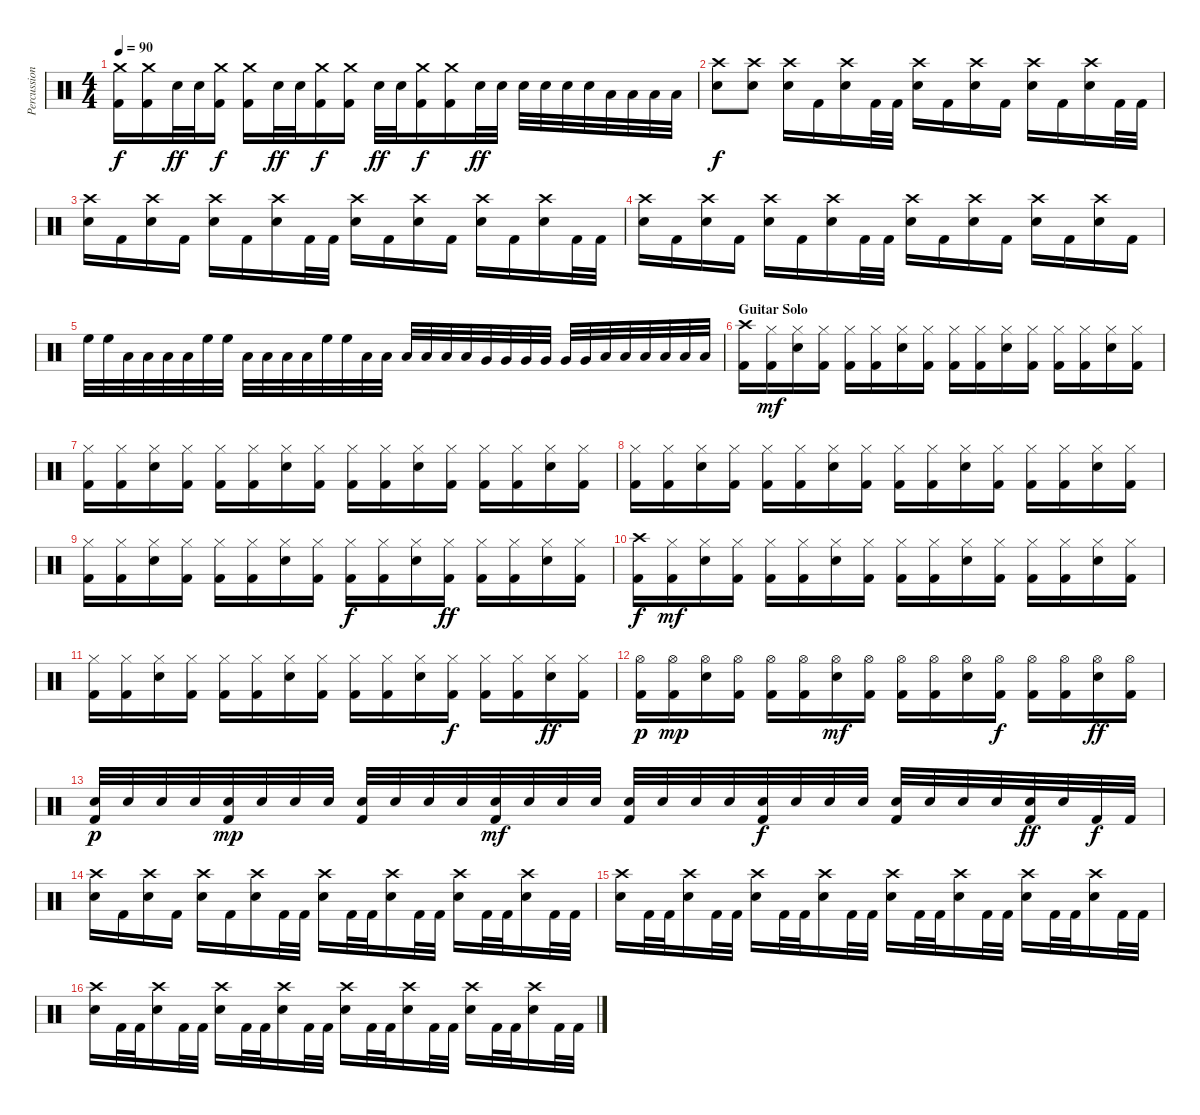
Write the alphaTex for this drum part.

\track ("Percussion" "Percussion") {instrument percussion}
\staff {score}
\articulation defaults
\ts (4 4)
\tempo 90
\clef neutral
\ks c
("Crash medium (hit)" "Kick (hit) 2").16{dy f} ("Crash medium (hit)" "Kick (hit) 2").16 "Electric Snare (hit)".32{dy ff} "Electric Snare (hit)".32 ("Crash medium (hit)" "Kick (hit) 2").16{dy f} ("Crash medium (hit)" "Kick (hit) 2").16 "Electric Snare (hit)".32{dy ff} "Electric Snare (hit)".32 ("Crash medium (hit)" "Kick (hit) 2").16{dy f} ("Crash medium (hit)" "Kick (hit) 2").16 "Electric Snare (hit)".32{dy ff} "Electric Snare (hit)".32 ("Crash medium (hit)" "Kick (hit) 2").16{dy f} ("Crash medium (hit)" "Kick (hit) 2").16 "Electric Snare (hit)".32{dy ff} "Electric Snare (hit)".32 "Electric Snare (hit)".32 "Electric Snare (hit)".32 "Electric Snare (hit)".32 "Electric Snare (hit)".32 "Low Tom (hit)".32 "Low Tom (hit)".32 "Low Tom (hit)".32 "Low Tom (hit)".32 |
("Crash high (hit)" "Electric Snare (hit)").8{dy f} ("Crash high (hit)" "Electric Snare (hit)").8 ("Crash high (hit)" "Electric Snare (hit)").16 "Kick (hit) 2".16 ("Crash high (hit)" "Electric Snare (hit)").16 "Kick (hit) 2".32 "Kick (hit) 2".32 ("Crash high (hit)" "Electric Snare (hit)").16 "Kick (hit) 2".16 ("Crash high (hit)" "Electric Snare (hit)").16 "Kick (hit) 2".16 ("Crash high (hit)" "Electric Snare (hit)").16 "Kick (hit) 2".16 ("Crash high (hit)" "Electric Snare (hit)").16 "Kick (hit) 2".32 "Kick (hit) 2".32 |
("Crash high (hit)" "Electric Snare (hit)").16 "Kick (hit) 2".16 ("Crash high (hit)" "Electric Snare (hit)").16 "Kick (hit) 2".16 ("Crash high (hit)" "Electric Snare (hit)").16 "Kick (hit) 2".16 ("Crash high (hit)" "Electric Snare (hit)").16 "Kick (hit) 2".32 "Kick (hit) 2".32 ("Crash high (hit)" "Electric Snare (hit)").16 "Kick (hit) 2".16 ("Crash high (hit)" "Electric Snare (hit)").16 "Kick (hit) 2".16 ("Crash high (hit)" "Electric Snare (hit)").16 "Kick (hit) 2".16 ("Crash high (hit)" "Electric Snare (hit)").16 "Kick (hit) 2".32 "Kick (hit) 2".32 |
("Crash high (hit)" "Electric Snare (hit)").16 "Kick (hit) 2".16 ("Crash high (hit)" "Electric Snare (hit)").16 "Kick (hit) 2".16 ("Crash high (hit)" "Electric Snare (hit)").16 "Kick (hit) 2".16 ("Crash high (hit)" "Electric Snare (hit)").16 "Kick (hit) 2".32 "Kick (hit) 2".32 ("Crash high (hit)" "Electric Snare (hit)").16 "Kick (hit) 2".16 ("Crash high (hit)" "Electric Snare (hit)").16 "Kick (hit) 2".16 ("Crash high (hit)" "Electric Snare (hit)").16 "Kick (hit) 2".16 ("Crash high (hit)" "Electric Snare (hit)").16 "Kick (hit) 2".16 |
"High Floor Tom (hit)".32 "High Floor Tom (hit)".32 "Low Tom (hit)".32 "Low Tom (hit)".32 "Low Tom (hit)".32 "Low Tom (hit)".32 "High Floor Tom (hit)".32 "High Floor Tom (hit)".32 "Low Tom (hit)".32 "Low Tom (hit)".32 "Low Tom (hit)".32 "Low Tom (hit)".32 "High Floor Tom (hit)".32 "High Floor Tom (hit)".32 "Low Tom (hit)".32 "Low Tom (hit)".32 "Low Tom (hit)".32 "Low Tom (hit)".32 "Low Tom (hit)".32 "Low Tom (hit)".32 "Very Low Tom (hit)".32 "Very Low Tom (hit)".32 "Very Low Tom (hit)".32 "Very Low Tom (hit)".32 "Very Low Tom (hit)".32 "Very Low Tom (hit)".32 "Low Floor Tom (hit)".32 "Low Floor Tom (hit)".32 "Low Floor Tom (hit)".32 "Low Floor Tom (hit)".32 "Low Floor Tom (hit)".32 "Low Floor Tom (hit)".32 |
\section ("" "Guitar Solo")
("Crash high (hit)" "Kick (hit) 2").16 ("Hi-Hat (closed)" "Kick (hit) 2").16{dy mf} ("Hi-Hat (closed)" "Electric Snare (hit)").16 ("Hi-Hat (closed)" "Kick (hit) 2").16 ("Hi-Hat (closed)" "Kick (hit) 2").16 ("Hi-Hat (closed)" "Kick (hit) 2").16 ("Hi-Hat (closed)" "Electric Snare (hit)").16 ("Hi-Hat (closed)" "Kick (hit) 2").16 ("Hi-Hat (closed)" "Kick (hit) 2").16 ("Hi-Hat (closed)" "Kick (hit) 2").16 ("Hi-Hat (closed)" "Electric Snare (hit)").16 ("Hi-Hat (closed)" "Kick (hit) 2").16 ("Hi-Hat (closed)" "Kick (hit) 2").16 ("Hi-Hat (closed)" "Kick (hit) 2").16 ("Hi-Hat (closed)" "Electric Snare (hit)").16 ("Hi-Hat (closed)" "Kick (hit) 2").16 |
("Hi-Hat (closed)" "Kick (hit) 2").16 ("Hi-Hat (closed)" "Kick (hit) 2").16 ("Hi-Hat (closed)" "Electric Snare (hit)").16 ("Hi-Hat (closed)" "Kick (hit) 2").16 ("Hi-Hat (closed)" "Kick (hit) 2").16 ("Hi-Hat (closed)" "Kick (hit) 2").16 ("Hi-Hat (closed)" "Electric Snare (hit)").16 ("Hi-Hat (closed)" "Kick (hit) 2").16 ("Hi-Hat (closed)" "Kick (hit) 2").16 ("Hi-Hat (closed)" "Kick (hit) 2").16 ("Hi-Hat (closed)" "Electric Snare (hit)").16 ("Hi-Hat (closed)" "Kick (hit) 2").16 ("Hi-Hat (closed)" "Kick (hit) 2").16 ("Hi-Hat (closed)" "Kick (hit) 2").16 ("Hi-Hat (closed)" "Electric Snare (hit)").16 ("Hi-Hat (closed)" "Kick (hit) 2").16 |
("Hi-Hat (closed)" "Kick (hit) 2").16 ("Hi-Hat (closed)" "Kick (hit) 2").16 ("Hi-Hat (closed)" "Electric Snare (hit)").16 ("Hi-Hat (closed)" "Kick (hit) 2").16 ("Hi-Hat (closed)" "Kick (hit) 2").16 ("Hi-Hat (closed)" "Kick (hit) 2").16 ("Hi-Hat (closed)" "Electric Snare (hit)").16 ("Hi-Hat (closed)" "Kick (hit) 2").16 ("Hi-Hat (closed)" "Kick (hit) 2").16 ("Hi-Hat (closed)" "Kick (hit) 2").16 ("Hi-Hat (closed)" "Electric Snare (hit)").16 ("Hi-Hat (closed)" "Kick (hit) 2").16 ("Hi-Hat (closed)" "Kick (hit) 2").16 ("Hi-Hat (closed)" "Kick (hit) 2").16 ("Hi-Hat (closed)" "Electric Snare (hit)").16 ("Hi-Hat (closed)" "Kick (hit) 2").16 |
("Hi-Hat (closed)" "Kick (hit) 2").16 ("Hi-Hat (closed)" "Kick (hit) 2").16 ("Hi-Hat (closed)" "Electric Snare (hit)").16 ("Hi-Hat (closed)" "Kick (hit) 2").16 ("Hi-Hat (closed)" "Kick (hit) 2").16 ("Hi-Hat (closed)" "Kick (hit) 2").16 ("Hi-Hat (closed)" "Electric Snare (hit)").16 ("Hi-Hat (closed)" "Kick (hit) 2").16 ("Hi-Hat (closed)" "Kick (hit) 2").16{dy f} ("Hi-Hat (closed)" "Kick (hit) 2").16 ("Hi-Hat (closed)" "Electric Snare (hit)").16 ("Hi-Hat (closed)" "Kick (hit) 2").16{dy ff} ("Hi-Hat (closed)" "Kick (hit) 2").16 ("Hi-Hat (closed)" "Kick (hit) 2").16 ("Hi-Hat (closed)" "Electric Snare (hit)").16 ("Hi-Hat (closed)" "Kick (hit) 2").16 |
("Crash high (hit)" "Kick (hit) 2").16{dy f} ("Hi-Hat (closed)" "Kick (hit) 2").16{dy mf} ("Hi-Hat (closed)" "Electric Snare (hit)").16 ("Hi-Hat (closed)" "Kick (hit) 2").16 ("Hi-Hat (closed)" "Kick (hit) 2").16 ("Hi-Hat (closed)" "Kick (hit) 2").16 ("Hi-Hat (closed)" "Electric Snare (hit)").16 ("Hi-Hat (closed)" "Kick (hit) 2").16 ("Hi-Hat (closed)" "Kick (hit) 2").16 ("Hi-Hat (closed)" "Kick (hit) 2").16 ("Hi-Hat (closed)" "Electric Snare (hit)").16 ("Hi-Hat (closed)" "Kick (hit) 2").16 ("Hi-Hat (closed)" "Kick (hit) 2").16 ("Hi-Hat (closed)" "Kick (hit) 2").16 ("Hi-Hat (closed)" "Electric Snare (hit)").16 ("Hi-Hat (closed)" "Kick (hit) 2").16 |
("Hi-Hat (closed)" "Kick (hit) 2").16 ("Hi-Hat (closed)" "Kick (hit) 2").16 ("Hi-Hat (closed)" "Electric Snare (hit)").16 ("Hi-Hat (closed)" "Kick (hit) 2").16 ("Hi-Hat (closed)" "Kick (hit) 2").16 ("Hi-Hat (closed)" "Kick (hit) 2").16 ("Hi-Hat (closed)" "Electric Snare (hit)").16 ("Hi-Hat (closed)" "Kick (hit) 2").16 ("Hi-Hat (closed)" "Kick (hit) 2").16 ("Hi-Hat (closed)" "Kick (hit) 2").16 ("Hi-Hat (closed)" "Electric Snare (hit)").16 ("Hi-Hat (closed)" "Kick (hit) 2").16{dy f} ("Hi-Hat (closed)" "Kick (hit) 2").16 ("Hi-Hat (closed)" "Kick (hit) 2").16 ("Hi-Hat (closed)" "Electric Snare (hit)").16{dy ff} ("Hi-Hat (closed)" "Kick (hit) 2").16 |
("Hi-Hat (open)" "Kick (hit) 2").16{dy p} ("Hi-Hat (open)" "Kick (hit) 2").16{dy mp} ("Hi-Hat (open)" "Electric Snare (hit)").16 ("Hi-Hat (open)" "Kick (hit) 2").16 ("Hi-Hat (open)" "Kick (hit) 2").16 ("Hi-Hat (open)" "Kick (hit) 2").16 ("Hi-Hat (open)" "Electric Snare (hit)").16{dy mf} ("Hi-Hat (open)" "Kick (hit) 2").16 ("Hi-Hat (open)" "Kick (hit) 2").16 ("Hi-Hat (open)" "Kick (hit) 2").16 ("Hi-Hat (open)" "Electric Snare (hit)").16 ("Hi-Hat (open)" "Kick (hit) 2").16{dy f} ("Hi-Hat (open)" "Kick (hit) 2").16 ("Hi-Hat (open)" "Kick (hit) 2").16 ("Hi-Hat (open)" "Electric Snare (hit)").16{dy ff} ("Hi-Hat (open)" "Kick (hit) 2").16 |
("Electric Snare (hit)" "Kick (hit) 2").32{dy p} "Electric Snare (hit)".32 "Electric Snare (hit)".32 "Electric Snare (hit)".32 ("Electric Snare (hit)" "Kick (hit) 2").32{dy mp} "Electric Snare (hit)".32 "Electric Snare (hit)".32 "Electric Snare (hit)".32 ("Electric Snare (hit)" "Kick (hit) 2").32 "Electric Snare (hit)".32 "Electric Snare (hit)".32 "Electric Snare (hit)".32 ("Electric Snare (hit)" "Kick (hit) 2").32{dy mf} "Electric Snare (hit)".32 "Electric Snare (hit)".32 "Electric Snare (hit)".32 ("Electric Snare (hit)" "Kick (hit) 2").32 "Electric Snare (hit)".32 "Electric Snare (hit)".32 "Electric Snare (hit)".32 ("Electric Snare (hit)" "Kick (hit) 2").32{dy f} "Electric Snare (hit)".32 "Electric Snare (hit)".32 "Electric Snare (hit)".32 ("Electric Snare (hit)" "Kick (hit) 2").32 "Electric Snare (hit)".32 "Electric Snare (hit)".32 "Electric Snare (hit)".32 ("Electric Snare (hit)" "Kick (hit) 2").32{dy ff} "Electric Snare (hit)".32 "Kick (hit) 2".32{dy f} "Kick (hit) 2".32 |
("Crash high (hit)" "Electric Snare (hit)").16 "Kick (hit) 2".16 ("Crash high (hit)" "Electric Snare (hit)").16 "Kick (hit) 2".16 ("Crash high (hit)" "Electric Snare (hit)").16 "Kick (hit) 2".16 ("Crash high (hit)" "Electric Snare (hit)").16 "Kick (hit) 2".32 "Kick (hit) 2".32 ("Crash high (hit)" "Electric Snare (hit)").16 "Kick (hit) 2".32 "Kick (hit) 2".32 ("Crash high (hit)" "Electric Snare (hit)").16 "Kick (hit) 2".32 "Kick (hit) 2".32 ("Crash high (hit)" "Electric Snare (hit)").16 "Kick (hit) 2".32 "Kick (hit) 2".32 ("Crash high (hit)" "Electric Snare (hit)").16 "Kick (hit) 2".32 "Kick (hit) 2".32 |
("Crash high (hit)" "Electric Snare (hit)").16 "Kick (hit) 2".32 "Kick (hit) 2".32 ("Crash high (hit)" "Electric Snare (hit)").16 "Kick (hit) 2".32 "Kick (hit) 2".32 ("Crash high (hit)" "Electric Snare (hit)").16 "Kick (hit) 2".32 "Kick (hit) 2".32 ("Crash high (hit)" "Electric Snare (hit)").16 "Kick (hit) 2".32 "Kick (hit) 2".32 ("Crash high (hit)" "Electric Snare (hit)").16 "Kick (hit) 2".32 "Kick (hit) 2".32 ("Crash high (hit)" "Electric Snare (hit)").16 "Kick (hit) 2".32 "Kick (hit) 2".32 ("Crash high (hit)" "Electric Snare (hit)").16 "Kick (hit) 2".32 "Kick (hit) 2".32 ("Crash high (hit)" "Electric Snare (hit)").16 "Kick (hit) 2".32 "Kick (hit) 2".32 |
("Crash high (hit)" "Electric Snare (hit)").16 "Kick (hit) 2".32 "Kick (hit) 2".32 ("Crash high (hit)" "Electric Snare (hit)").16 "Kick (hit) 2".32 "Kick (hit) 2".32 ("Crash high (hit)" "Electric Snare (hit)").16 "Kick (hit) 2".32 "Kick (hit) 2".32 ("Crash high (hit)" "Electric Snare (hit)").16 "Kick (hit) 2".32 "Kick (hit) 2".32 ("Crash high (hit)" "Electric Snare (hit)").16 "Kick (hit) 2".32 "Kick (hit) 2".32 ("Crash high (hit)" "Electric Snare (hit)").16 "Kick (hit) 2".32 "Kick (hit) 2".32 ("Crash high (hit)" "Electric Snare (hit)").16 "Kick (hit) 2".32 "Kick (hit) 2".32 ("Crash high (hit)" "Electric Snare (hit)").16 "Kick (hit) 2".32 "Kick (hit) 2".32
